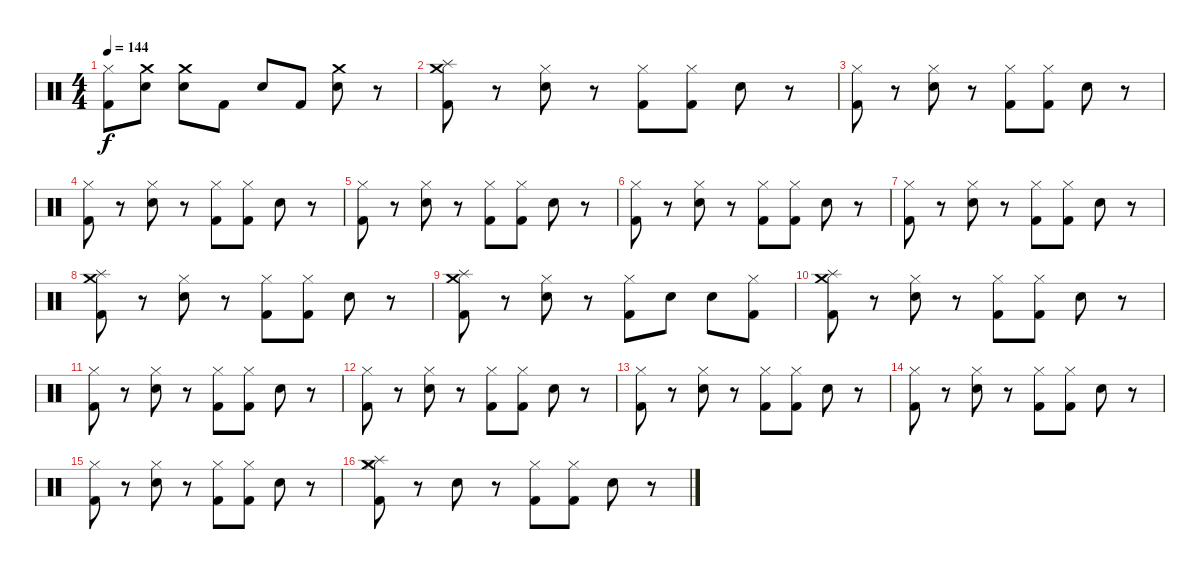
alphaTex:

\track "" {instrument percussion}
\staff {score}
\articulation defaults
\ts (4 4)
\tempo 144
\clef neutral
\ks c
("Hi-Hat (closed)" "Kick (hit) 2").8{dy f} ("Crash medium (hit)" "Snare (hit) 2").8 ("Crash medium (hit)" "Snare (hit) 2").8 "Kick (hit) 2".8 "Snare (hit) 2".8 "Kick (hit) 2".8 ("Crash medium (hit)" "Snare (hit) 2").8 r.8 |
("Kick (hit) 2" "Splash (hit)" "Crash medium (hit)").8 r.8 ("Hi-Hat (closed)" "Snare (hit) 2").8 r.8 ("Hi-Hat (closed)" "Kick (hit) 2").8 ("Hi-Hat (closed)" "Kick (hit) 2").8 "Snare (hit) 2".8 r.8 |
("Hi-Hat (closed)" "Kick (hit) 2").8 r.8 ("Hi-Hat (closed)" "Snare (hit) 2").8 r.8 ("Hi-Hat (closed)" "Kick (hit) 2").8 ("Hi-Hat (closed)" "Kick (hit) 2").8 "Snare (hit) 2".8 r.8 |
("Hi-Hat (closed)" "Kick (hit) 2").8 r.8 ("Hi-Hat (closed)" "Snare (hit) 2").8 r.8 ("Hi-Hat (closed)" "Kick (hit) 2").8 ("Hi-Hat (closed)" "Kick (hit) 2").8 "Snare (hit) 2".8 r.8 |
("Hi-Hat (closed)" "Kick (hit) 2").8 r.8 ("Hi-Hat (closed)" "Snare (hit) 2").8 r.8 ("Hi-Hat (closed)" "Kick (hit) 2").8 ("Hi-Hat (closed)" "Kick (hit) 2").8 "Snare (hit) 2".8 r.8 |
("Hi-Hat (closed)" "Kick (hit) 2").8 r.8 ("Hi-Hat (closed)" "Snare (hit) 2").8 r.8 ("Hi-Hat (closed)" "Kick (hit) 2").8 ("Hi-Hat (closed)" "Kick (hit) 2").8 "Snare (hit) 2".8 r.8 |
("Hi-Hat (closed)" "Kick (hit) 2").8 r.8 ("Hi-Hat (closed)" "Snare (hit) 2").8 r.8 ("Hi-Hat (closed)" "Kick (hit) 2").8 ("Hi-Hat (closed)" "Kick (hit) 2").8 "Snare (hit) 2".8 r.8 |
("Splash (hit)" "Crash medium (hit)" "Kick (hit) 2").8 r.8 ("Hi-Hat (closed)" "Snare (hit) 2").8 r.8 ("Hi-Hat (closed)" "Kick (hit) 2").8 ("Hi-Hat (closed)" "Kick (hit) 2").8 "Snare (hit) 2".8 r.8 |
("Crash medium (hit)" "Splash (hit)" "Kick (hit) 2").8 r.8 ("Hi-Hat (closed)" "Snare (hit) 2").8 r.8 ("Hi-Hat (closed)" "Kick (hit) 2").8 "Snare (hit) 2".8 "Snare (hit) 2".8 ("Hi-Hat (closed)" "Kick (hit) 2").8 |
("Kick (hit) 2" "Splash (hit)" "Crash medium (hit)").8 r.8 ("Hi-Hat (closed)" "Snare (hit) 2").8 r.8 ("Hi-Hat (closed)" "Kick (hit) 2").8 ("Hi-Hat (closed)" "Kick (hit) 2").8 "Snare (hit) 2".8 r.8 |
("Hi-Hat (closed)" "Kick (hit) 2").8 r.8 ("Hi-Hat (closed)" "Snare (hit) 2").8 r.8 ("Hi-Hat (closed)" "Kick (hit) 2").8 ("Hi-Hat (closed)" "Kick (hit) 2").8 "Snare (hit) 2".8 r.8 |
("Hi-Hat (closed)" "Kick (hit) 2").8 r.8 ("Hi-Hat (closed)" "Snare (hit) 2").8 r.8 ("Hi-Hat (closed)" "Kick (hit) 2").8 ("Hi-Hat (closed)" "Kick (hit) 2").8 "Snare (hit) 2".8 r.8 |
("Hi-Hat (closed)" "Kick (hit) 2").8 r.8 ("Hi-Hat (closed)" "Snare (hit) 2").8 r.8 ("Hi-Hat (closed)" "Kick (hit) 2").8 ("Hi-Hat (closed)" "Kick (hit) 2").8 "Snare (hit) 2".8 r.8 |
("Hi-Hat (closed)" "Kick (hit) 2").8 r.8 ("Hi-Hat (closed)" "Snare (hit) 2").8 r.8 ("Hi-Hat (closed)" "Kick (hit) 2").8 ("Hi-Hat (closed)" "Kick (hit) 2").8 "Snare (hit) 2".8 r.8 |
("Hi-Hat (closed)" "Kick (hit) 2").8 r.8 ("Hi-Hat (closed)" "Snare (hit) 2").8 r.8 ("Hi-Hat (closed)" "Kick (hit) 2").8 ("Hi-Hat (closed)" "Kick (hit) 2").8 "Snare (hit) 2".8 r.8 |
("Splash (hit)" "Crash medium (hit)" "Hi-Hat (closed)" "Kick (hit) 2").8 r.8 "Snare (hit) 2".8 r.8 ("Hi-Hat (closed)" "Kick (hit) 2").8 ("Hi-Hat (closed)" "Kick (hit) 2").8 "Snare (hit) 2".8 r.8
